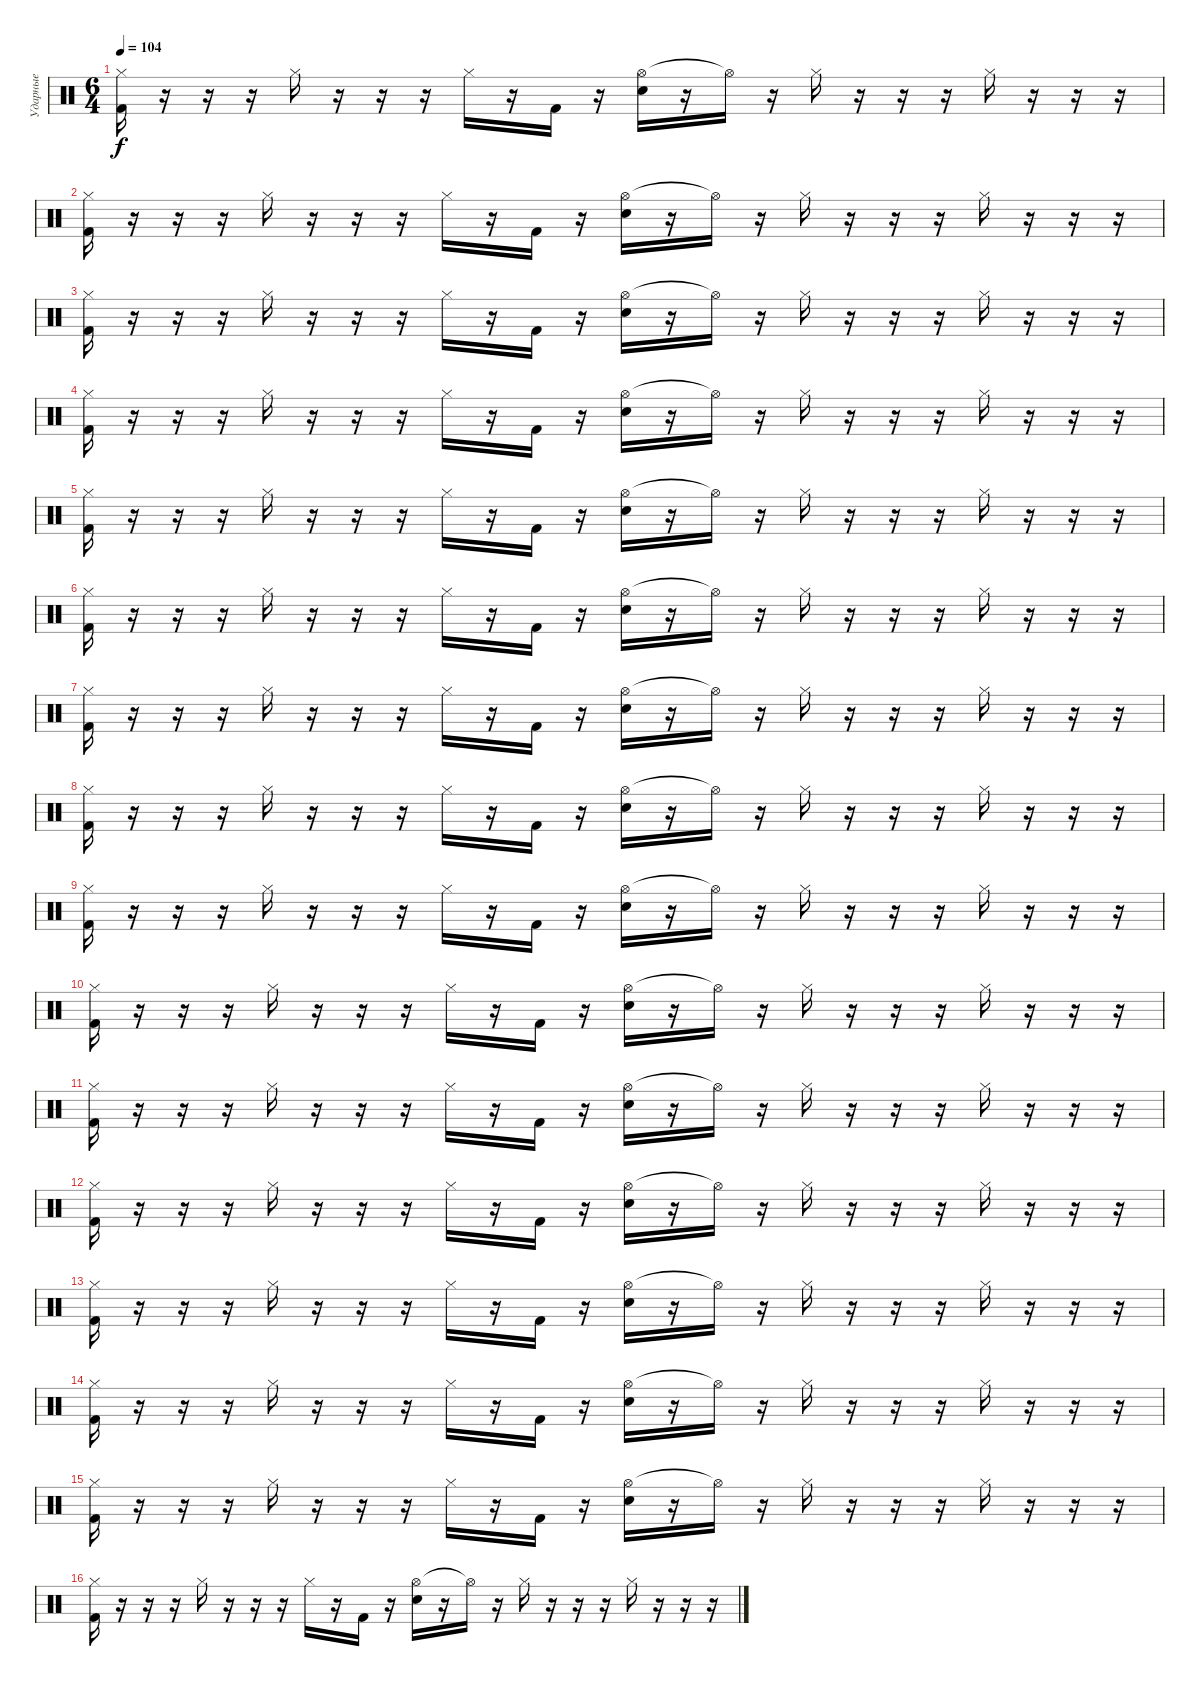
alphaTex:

\track ("Ударные" "Ударные") {instrument percussion}
\staff {score}
\articulation defaults
\ts (6 4)
\tempo 104
\clef neutral
\ks c
("Hi-Hat (closed)" "Kick (hit) 2").16{dy f} r.16 r.16 r.16 "Hi-Hat (closed)".16 r.16 r.16 r.16 "Hi-Hat (closed)".16 r.16 "Kick (hit) 2".16 r.16 ("Hi-Hat (open)" "Electric Snare (hit)").16 r.16 "Hi-Hat (open)"{t}.16 r.16 "Hi-Hat (closed)".16 r.16 r.16 r.16 "Hi-Hat (closed)".16 r.16 r.16 r.16 |
("Hi-Hat (closed)" "Kick (hit) 2").16 r.16 r.16 r.16 "Hi-Hat (closed)".16 r.16 r.16 r.16 "Hi-Hat (closed)".16 r.16 "Kick (hit) 2".16 r.16 ("Hi-Hat (open)" "Electric Snare (hit)").16 r.16 "Hi-Hat (open)"{t}.16 r.16 "Hi-Hat (closed)".16 r.16 r.16 r.16 "Hi-Hat (closed)".16 r.16 r.16 r.16 |
("Hi-Hat (closed)" "Kick (hit) 2").16 r.16 r.16 r.16 "Hi-Hat (closed)".16 r.16 r.16 r.16 "Hi-Hat (closed)".16 r.16 "Kick (hit) 2".16 r.16 ("Hi-Hat (open)" "Electric Snare (hit)").16 r.16 "Hi-Hat (open)"{t}.16 r.16 "Hi-Hat (closed)".16 r.16 r.16 r.16 "Hi-Hat (closed)".16 r.16 r.16 r.16 |
("Hi-Hat (closed)" "Kick (hit) 2").16 r.16 r.16 r.16 "Hi-Hat (closed)".16 r.16 r.16 r.16 "Hi-Hat (closed)".16 r.16 "Kick (hit) 2".16 r.16 ("Hi-Hat (open)" "Electric Snare (hit)").16 r.16 "Hi-Hat (open)"{t}.16 r.16 "Hi-Hat (closed)".16 r.16 r.16 r.16 "Hi-Hat (closed)".16 r.16 r.16 r.16 |
("Hi-Hat (closed)" "Kick (hit) 2").16 r.16 r.16 r.16 "Hi-Hat (closed)".16 r.16 r.16 r.16 "Hi-Hat (closed)".16 r.16 "Kick (hit) 2".16 r.16 ("Hi-Hat (open)" "Electric Snare (hit)").16 r.16 "Hi-Hat (open)"{t}.16 r.16 "Hi-Hat (closed)".16 r.16 r.16 r.16 "Hi-Hat (closed)".16 r.16 r.16 r.16 |
("Hi-Hat (closed)" "Kick (hit) 2").16 r.16 r.16 r.16 "Hi-Hat (closed)".16 r.16 r.16 r.16 "Hi-Hat (closed)".16 r.16 "Kick (hit) 2".16 r.16 ("Hi-Hat (open)" "Electric Snare (hit)").16 r.16 "Hi-Hat (open)"{t}.16 r.16 "Hi-Hat (closed)".16 r.16 r.16 r.16 "Hi-Hat (closed)".16 r.16 r.16 r.16 |
("Hi-Hat (closed)" "Kick (hit) 2").16 r.16 r.16 r.16 "Hi-Hat (closed)".16 r.16 r.16 r.16 "Hi-Hat (closed)".16 r.16 "Kick (hit) 2".16 r.16 ("Hi-Hat (open)" "Electric Snare (hit)").16 r.16 "Hi-Hat (open)"{t}.16 r.16 "Hi-Hat (closed)".16 r.16 r.16 r.16 "Hi-Hat (closed)".16 r.16 r.16 r.16 |
("Hi-Hat (closed)" "Kick (hit) 2").16 r.16 r.16 r.16 "Hi-Hat (closed)".16 r.16 r.16 r.16 "Hi-Hat (closed)".16 r.16 "Kick (hit) 2".16 r.16 ("Hi-Hat (open)" "Electric Snare (hit)").16 r.16 "Hi-Hat (open)"{t}.16 r.16 "Hi-Hat (closed)".16 r.16 r.16 r.16 "Hi-Hat (closed)".16 r.16 r.16 r.16 |
("Hi-Hat (closed)" "Kick (hit) 2").16 r.16 r.16 r.16 "Hi-Hat (closed)".16 r.16 r.16 r.16 "Hi-Hat (closed)".16 r.16 "Kick (hit) 2".16 r.16 ("Hi-Hat (open)" "Electric Snare (hit)").16 r.16 "Hi-Hat (open)"{t}.16 r.16 "Hi-Hat (closed)".16 r.16 r.16 r.16 "Hi-Hat (closed)".16 r.16 r.16 r.16 |
("Hi-Hat (closed)" "Kick (hit) 2").16 r.16 r.16 r.16 "Hi-Hat (closed)".16 r.16 r.16 r.16 "Hi-Hat (closed)".16 r.16 "Kick (hit) 2".16 r.16 ("Hi-Hat (open)" "Electric Snare (hit)").16 r.16 "Hi-Hat (open)"{t}.16 r.16 "Hi-Hat (closed)".16 r.16 r.16 r.16 "Hi-Hat (closed)".16 r.16 r.16 r.16 |
("Hi-Hat (closed)" "Kick (hit) 2").16 r.16 r.16 r.16 "Hi-Hat (closed)".16 r.16 r.16 r.16 "Hi-Hat (closed)".16 r.16 "Kick (hit) 2".16 r.16 ("Hi-Hat (open)" "Electric Snare (hit)").16 r.16 "Hi-Hat (open)"{t}.16 r.16 "Hi-Hat (closed)".16 r.16 r.16 r.16 "Hi-Hat (closed)".16 r.16 r.16 r.16 |
("Hi-Hat (closed)" "Kick (hit) 2").16 r.16 r.16 r.16 "Hi-Hat (closed)".16 r.16 r.16 r.16 "Hi-Hat (closed)".16 r.16 "Kick (hit) 2".16 r.16 ("Hi-Hat (open)" "Electric Snare (hit)").16 r.16 "Hi-Hat (open)"{t}.16 r.16 "Hi-Hat (closed)".16 r.16 r.16 r.16 "Hi-Hat (closed)".16 r.16 r.16 r.16 |
("Hi-Hat (closed)" "Kick (hit) 2").16 r.16 r.16 r.16 "Hi-Hat (closed)".16 r.16 r.16 r.16 "Hi-Hat (closed)".16 r.16 "Kick (hit) 2".16 r.16 ("Hi-Hat (open)" "Electric Snare (hit)").16 r.16 "Hi-Hat (open)"{t}.16 r.16 "Hi-Hat (closed)".16 r.16 r.16 r.16 "Hi-Hat (closed)".16 r.16 r.16 r.16 |
("Hi-Hat (closed)" "Kick (hit) 2").16 r.16 r.16 r.16 "Hi-Hat (closed)".16 r.16 r.16 r.16 "Hi-Hat (closed)".16 r.16 "Kick (hit) 2".16 r.16 ("Hi-Hat (open)" "Electric Snare (hit)").16 r.16 "Hi-Hat (open)"{t}.16 r.16 "Hi-Hat (closed)".16 r.16 r.16 r.16 "Hi-Hat (closed)".16 r.16 r.16 r.16 |
("Hi-Hat (closed)" "Kick (hit) 2").16 r.16 r.16 r.16 "Hi-Hat (closed)".16 r.16 r.16 r.16 "Hi-Hat (closed)".16 r.16 "Kick (hit) 2".16 r.16 ("Hi-Hat (open)" "Electric Snare (hit)").16 r.16 "Hi-Hat (open)"{t}.16 r.16 "Hi-Hat (closed)".16 r.16 r.16 r.16 "Hi-Hat (closed)".16 r.16 r.16 r.16 |
("Hi-Hat (closed)" "Kick (hit) 2").16 r.16 r.16 r.16 "Hi-Hat (closed)".16 r.16 r.16 r.16 "Hi-Hat (closed)".16 r.16 "Kick (hit) 2".16 r.16 ("Hi-Hat (open)" "Electric Snare (hit)").16 r.16 "Hi-Hat (open)"{t}.16 r.16 "Hi-Hat (closed)".16 r.16 r.16 r.16 "Hi-Hat (closed)".16 r.16 r.16 r.16
